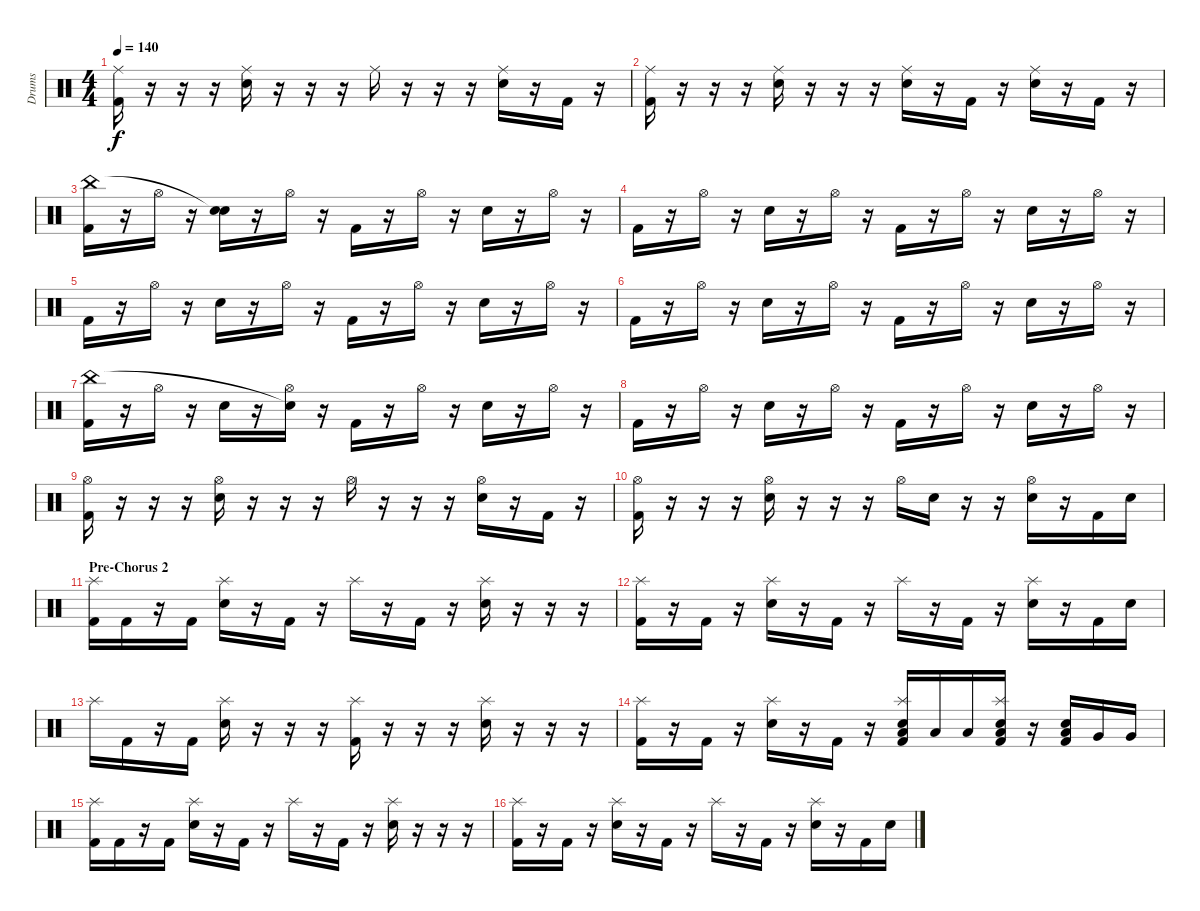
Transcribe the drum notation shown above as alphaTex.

\track ("Drums" "Drums") {instrument percussion}
\staff {score}
\articulation defaults
\ts (4 4)
\tempo 140
\clef neutral
\ks c
("Kick (hit) 2" "Ride (middle)").16{dy f} r.16 r.16 r.16 ("Snare (hit) 2" "Ride (middle)").16 r.16 r.16 r.16 "Ride (middle)".16 r.16 r.16 r.16 ("Snare (hit) 2" "Ride (middle)").16 r.16 "Kick (hit) 2".16 r.16 |
("Kick (hit) 2" "Ride (middle)").16 r.16 r.16 r.16 ("Snare (hit) 2" "Ride (middle)").16 r.16 r.16 r.16 ("Snare (hit) 2" "Ride (middle)").16 r.16 "Kick (hit) 2".16 r.16 ("Snare (hit) 2" "Ride (middle)").16 r.16 "Kick (hit) 2".16 r.16 |
("Kick (hit) 2" "China (hit)").16 r.16 "Hi-Hat (open)".16 r.16 ("Snare (hit) 2" "Snare (hit)"{t}).16 r.16 "Hi-Hat (open)".16 r.16 "Kick (hit) 2".16 r.16 "Hi-Hat (open)".16 r.16 "Snare (hit) 2".16 r.16 "Hi-Hat (open)".16 r.16 |
"Kick (hit) 2".16 r.16 "Hi-Hat (open)".16 r.16 "Snare (hit) 2".16 r.16 "Hi-Hat (open)".16 r.16 "Kick (hit) 2".16 r.16 "Hi-Hat (open)".16 r.16 "Snare (hit) 2".16 r.16 "Hi-Hat (open)".16 r.16 |
"Kick (hit) 2".16 r.16 "Hi-Hat (open)".16 r.16 "Snare (hit) 2".16 r.16 "Hi-Hat (open)".16 r.16 "Kick (hit) 2".16 r.16 "Hi-Hat (open)".16 r.16 "Snare (hit) 2".16 r.16 "Hi-Hat (open)".16 r.16 |
"Kick (hit) 2".16 r.16 "Hi-Hat (open)".16 r.16 "Snare (hit) 2".16 r.16 "Hi-Hat (open)".16 r.16 "Kick (hit) 2".16 r.16 "Hi-Hat (open)".16 r.16 "Snare (hit) 2".16 r.16 "Hi-Hat (open)".16 r.16 |
("Kick (hit) 2" "China (hit)").16 r.16 "Hi-Hat (open)".16 r.16 "Snare (hit) 2".16 r.16 ("Hi-Hat (open)" "Snare (hit)"{t}).16 r.16 "Kick (hit) 2".16 r.16 "Hi-Hat (open)".16 r.16 "Snare (hit) 2".16 r.16 "Hi-Hat (open)".16 r.16 |
"Kick (hit) 2".16 r.16 "Hi-Hat (open)".16 r.16 "Snare (hit) 2".16 r.16 "Hi-Hat (open)".16 r.16 "Kick (hit) 2".16 r.16 "Hi-Hat (open)".16 r.16 "Snare (hit) 2".16 r.16 "Hi-Hat (open)".16 r.16 |
("Kick (hit) 2" "Hi-Hat (open)").16 r.16 r.16 r.16 ("Snare (hit) 2" "Hi-Hat (open)").16 r.16 r.16 r.16 "Hi-Hat (open)".16 r.16 r.16 r.16 ("Snare (hit) 2" "Hi-Hat (open)").16 r.16 "Kick (hit) 2".16 r.16 |
("Kick (hit) 2" "Hi-Hat (open)").16 r.16 r.16 r.16 ("Snare (hit) 2" "Hi-Hat (open)").16 r.16 r.16 r.16 "Hi-Hat (open)".16 "Snare (hit) 2".16 r.16 r.16 ("Snare (hit) 2" "Hi-Hat (open)").16 r.16 "Kick (hit) 2".16 "Snare (hit) 2".16 |
\section ("" "Pre-Chorus 2")
("Kick (hit) 2" "Splash (hit)").16 "Kick (hit) 2".16 r.16 "Kick (hit) 2".16 ("Snare (hit) 2" "Splash (hit)").16 r.16 "Kick (hit) 2".16 r.16 "Splash (hit)".16 r.16 "Kick (hit) 2".16 r.16 ("Snare (hit) 2" "Splash (hit)").16 r.16 r.16 r.16 |
("Kick (hit) 2" "Splash (hit)").16 r.16 "Kick (hit) 2".16 r.16 ("Snare (hit) 2" "Splash (hit)").16 r.16 "Kick (hit) 2".16 r.16 "Splash (hit)".16 r.16 "Kick (hit) 2".16 r.16 ("Snare (hit) 2" "Splash (hit)").16 r.16 "Kick (hit) 2".16 "Snare (hit) 2".16 |
"Splash (hit)".16 "Kick (hit) 2".16 r.16 "Kick (hit) 2".16 ("Snare (hit) 2" "Splash (hit)").16 r.16 r.16 r.16 ("Kick (hit) 2" "Splash (hit)").16 r.16 r.16 r.16 ("Snare (hit) 2" "Splash (hit)").16 r.16 r.16 r.16 |
("Kick (hit) 2" "Splash (hit)").16 r.16 "Kick (hit) 2".16 r.16 ("Snare (hit) 2" "Splash (hit)").16 r.16 "Kick (hit) 2".16 r.16 ("Kick (hit) 2" "Snare (hit) 2" "Low Tom (hit)" "Splash (hit)").16 "Low Tom (hit)".16 "Low Tom (hit)".16 ("Kick (hit) 2" "Snare (hit) 2" "Low Tom (hit)" "Splash (hit)").16 r.16 ("Kick (hit) 2" "Snare (hit) 2" "Low Tom (hit)").16 "Very Low Tom (hit)".16 "Very Low Tom (hit)".16 |
("Kick (hit) 2" "Splash (hit)").16 "Kick (hit) 2".16 r.16 "Kick (hit) 2".16 ("Snare (hit) 2" "Splash (hit)").16 r.16 "Kick (hit) 2".16 r.16 "Splash (hit)".16 r.16 "Kick (hit) 2".16 r.16 ("Snare (hit) 2" "Splash (hit)").16 r.16 r.16 r.16 |
("Kick (hit) 2" "Splash (hit)").16 r.16 "Kick (hit) 2".16 r.16 ("Snare (hit) 2" "Splash (hit)").16 r.16 "Kick (hit) 2".16 r.16 "Splash (hit)".16 r.16 "Kick (hit) 2".16 r.16 ("Snare (hit) 2" "Splash (hit)").16 r.16 "Kick (hit) 2".16 "Snare (hit) 2".16
